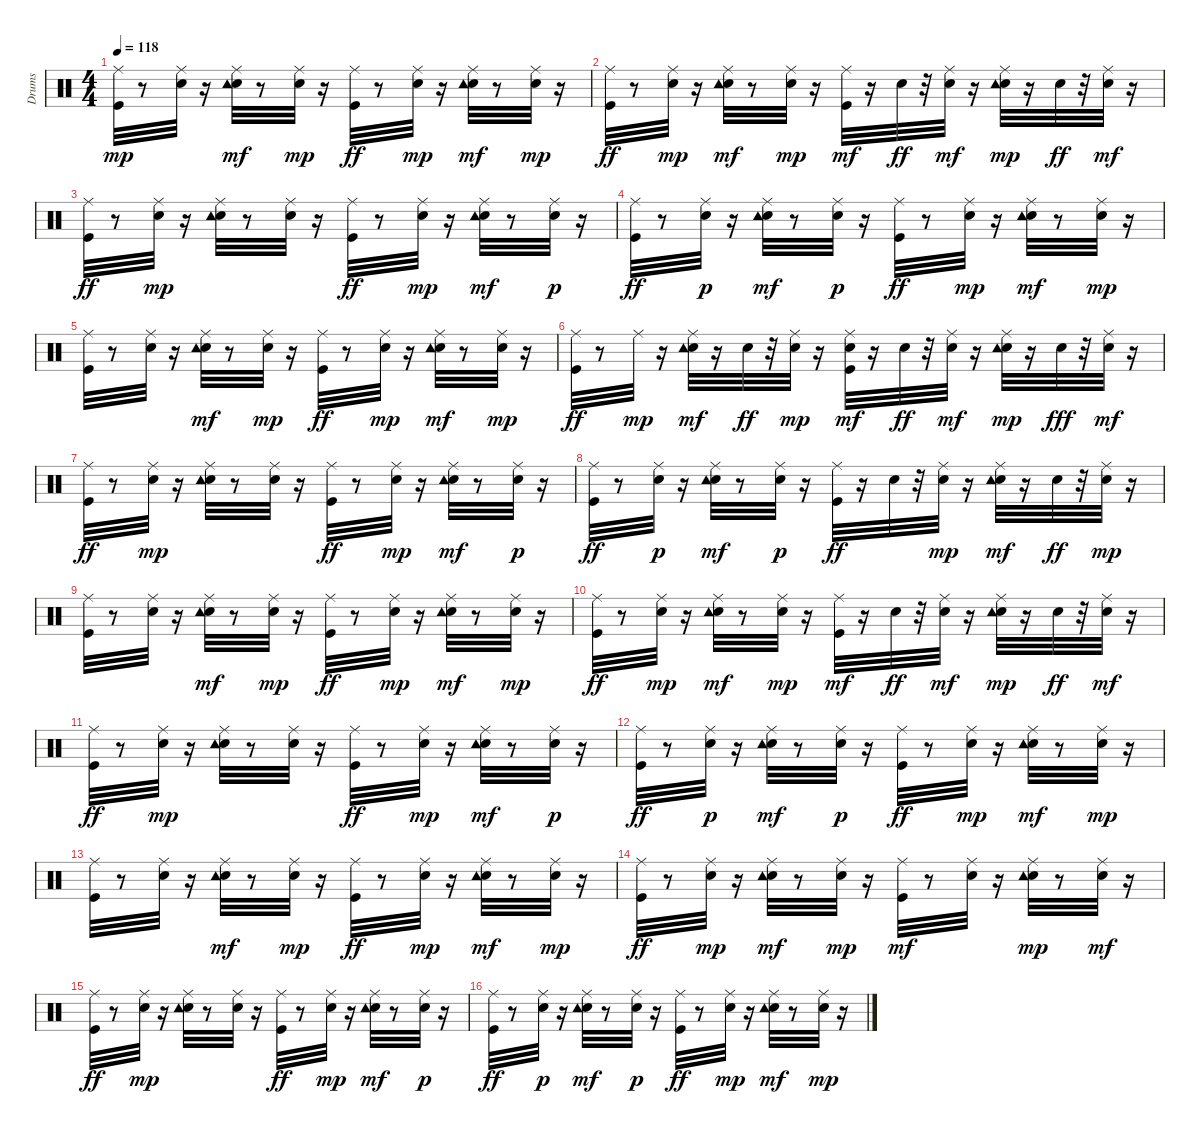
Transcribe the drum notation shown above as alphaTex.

\track ("Drums" "Drums") {instrument percussion}
\staff {score}
\articulation defaults
\ts (4 4)
\tempo 118
\clef neutral
\ks c
("Kick (hit)" "Ride (middle)").32{dy mp} r.8 ("Electric Snare (hit)" "Ride (middle)").32 r.16 ("Electric Snare (hit)" "Ride (middle)" "Tambourine (hit)").32{dy mf} r.8 ("Electric Snare (hit)" "Ride (middle)").32{dy mp} r.16 ("Ride (middle)" "Kick (hit)").32{dy ff} r.8 ("Electric Snare (hit)" "Ride (middle)").32{dy mp} r.16 ("Electric Snare (hit)" "Ride (middle)" "Tambourine (hit)").32{dy mf} r.8 ("Electric Snare (hit)" "Ride (middle)").32{dy mp} r.16 |
("Ride (middle)" "Kick (hit)").32{dy ff} r.8 ("Electric Snare (hit)" "Ride (middle)").32{dy mp} r.16 ("Electric Snare (hit)" "Ride (middle)" "Tambourine (hit)").32{dy mf} r.8 ("Electric Snare (hit)" "Ride (middle)").32{dy mp} r.16 ("Kick (hit)" "Ride (middle)").32{dy mf} r.16 "Electric Snare (hit)".32{dy ff} r.32 ("Electric Snare (hit)" "Ride (middle)").32{dy mf} r.16 ("Electric Snare (hit)" "Ride (middle)" "Tambourine (hit)").32{dy mp} r.16 "Electric Snare (hit)".32{dy ff} r.32 ("Electric Snare (hit)" "Ride (middle)").32{dy mf} r.16 |
("Ride (middle)" "Kick (hit)").32{dy ff} r.8 ("Electric Snare (hit)" "Ride (middle)").32{dy mp} r.16 ("Electric Snare (hit)" "Tambourine (hit)" "Ride (middle)").32 r.8 ("Electric Snare (hit)" "Ride (middle)").32 r.16 ("Ride (middle)" "Kick (hit)").32{dy ff} r.8 ("Electric Snare (hit)" "Ride (middle)").32{dy mp} r.16 ("Electric Snare (hit)" "Ride (middle)" "Tambourine (hit)").32{dy mf} r.8 ("Ride (middle)" "Electric Snare (hit)").32{dy p} r.16 |
("Ride (middle)" "Kick (hit)").32{dy ff} r.8 ("Electric Snare (hit)" "Ride (middle)").32{dy p} r.16 ("Electric Snare (hit)" "Ride (middle)" "Tambourine (hit)").32{dy mf} r.8 ("Ride (middle)" "Electric Snare (hit)").32{dy p} r.16 ("Ride (middle)" "Kick (hit)").32{dy ff} r.8 ("Electric Snare (hit)" "Ride (middle)").32{dy mp} r.16 ("Electric Snare (hit)" "Ride (middle)" "Tambourine (hit)").32{dy mf} r.8 ("Electric Snare (hit)" "Ride (middle)").32{dy mp} r.16 |
("Kick (hit)" "Ride (middle)").32 r.8 ("Electric Snare (hit)" "Ride (middle)").32 r.16 ("Electric Snare (hit)" "Ride (middle)" "Tambourine (hit)").32{dy mf} r.8 ("Electric Snare (hit)" "Ride (middle)").32{dy mp} r.16 ("Ride (middle)" "Kick (hit)").32{dy ff} r.8 ("Electric Snare (hit)" "Ride (middle)").32{dy mp} r.16 ("Electric Snare (hit)" "Ride (middle)" "Tambourine (hit)").32{dy mf} r.8 ("Electric Snare (hit)" "Ride (middle)").32{dy mp} r.16 |
("Ride (middle)" "Kick (hit)").32{dy ff} r.8 "Ride (middle)".32{dy mp} r.16 ("Electric Snare (hit)" "Ride (middle)" "Tambourine (hit)").32{dy mf} r.16 "Electric Snare (hit)".32{dy ff} r.32 ("Electric Snare (hit)" "Ride (middle)").32{dy mp} r.16 ("Electric Snare (hit)" "Kick (hit)" "Ride (middle)").32{dy mf} r.16 "Electric Snare (hit)".32{dy ff} r.32 ("Electric Snare (hit)" "Ride (middle)").32{dy mf} r.16 ("Electric Snare (hit)" "Ride (middle)" "Tambourine (hit)").32{dy mp} r.16 "Electric Snare (hit)".32{dy fff} r.32 ("Electric Snare (hit)" "Ride (middle)").32{dy mf} r.16 |
("Ride (middle)" "Kick (hit)").32{dy ff} r.8 ("Electric Snare (hit)" "Ride (middle)").32{dy mp} r.16 ("Electric Snare (hit)" "Tambourine (hit)" "Ride (middle)").32 r.8 ("Electric Snare (hit)" "Ride (middle)").32 r.16 ("Ride (middle)" "Kick (hit)").32{dy ff} r.8 ("Electric Snare (hit)" "Ride (middle)").32{dy mp} r.16 ("Electric Snare (hit)" "Ride (middle)" "Tambourine (hit)").32{dy mf} r.8 ("Ride (middle)" "Electric Snare (hit)").32{dy p} r.16 |
("Ride (middle)" "Kick (hit)").32{dy ff} r.8 ("Electric Snare (hit)" "Ride (middle)").32{dy p} r.16 ("Electric Snare (hit)" "Ride (middle)" "Tambourine (hit)").32{dy mf} r.8 ("Ride (middle)" "Electric Snare (hit)").32{dy p} r.16 ("Ride (middle)" "Kick (hit)").32{dy ff} r.16 "Electric Snare (hit)".32 r.32 ("Electric Snare (hit)" "Ride (middle)").32{dy mp} r.16 ("Electric Snare (hit)" "Ride (middle)" "Tambourine (hit)").32{dy mf} r.16 "Electric Snare (hit)".32{dy ff} r.32 ("Electric Snare (hit)" "Ride (middle)").32{dy mp} r.16 |
("Kick (hit)" "Ride (middle)").32 r.8 ("Electric Snare (hit)" "Ride (middle)").32 r.16 ("Electric Snare (hit)" "Ride (middle)" "Tambourine (hit)").32{dy mf} r.8 ("Electric Snare (hit)" "Ride (middle)").32{dy mp} r.16 ("Ride (middle)" "Kick (hit)").32{dy ff} r.8 ("Electric Snare (hit)" "Ride (middle)").32{dy mp} r.16 ("Electric Snare (hit)" "Ride (middle)" "Tambourine (hit)").32{dy mf} r.8 ("Electric Snare (hit)" "Ride (middle)").32{dy mp} r.16 |
("Ride (middle)" "Kick (hit)").32{dy ff} r.8 ("Electric Snare (hit)" "Ride (middle)").32{dy mp} r.16 ("Electric Snare (hit)" "Ride (middle)" "Tambourine (hit)").32{dy mf} r.8 ("Electric Snare (hit)" "Ride (middle)").32{dy mp} r.16 ("Kick (hit)" "Ride (middle)").32{dy mf} r.16 "Electric Snare (hit)".32{dy ff} r.32 ("Electric Snare (hit)" "Ride (middle)").32{dy mf} r.16 ("Electric Snare (hit)" "Ride (middle)" "Tambourine (hit)").32{dy mp} r.16 "Electric Snare (hit)".32{dy ff} r.32 ("Electric Snare (hit)" "Ride (middle)").32{dy mf} r.16 |
("Ride (middle)" "Kick (hit)").32{dy ff} r.8 ("Electric Snare (hit)" "Ride (middle)").32{dy mp} r.16 ("Electric Snare (hit)" "Tambourine (hit)" "Ride (middle)").32 r.8 ("Electric Snare (hit)" "Ride (middle)").32 r.16 ("Ride (middle)" "Kick (hit)").32{dy ff} r.8 ("Electric Snare (hit)" "Ride (middle)").32{dy mp} r.16 ("Electric Snare (hit)" "Ride (middle)" "Tambourine (hit)").32{dy mf} r.8 ("Ride (middle)" "Electric Snare (hit)").32{dy p} r.16 |
("Ride (middle)" "Kick (hit)").32{dy ff} r.8 ("Electric Snare (hit)" "Ride (middle)").32{dy p} r.16 ("Electric Snare (hit)" "Ride (middle)" "Tambourine (hit)").32{dy mf} r.8 ("Ride (middle)" "Electric Snare (hit)").32{dy p} r.16 ("Ride (middle)" "Kick (hit)").32{dy ff} r.8 ("Electric Snare (hit)" "Ride (middle)").32{dy mp} r.16 ("Electric Snare (hit)" "Ride (middle)" "Tambourine (hit)").32{dy mf} r.8 ("Electric Snare (hit)" "Ride (middle)").32{dy mp} r.16 |
("Kick (hit)" "Ride (middle)").32 r.8 ("Electric Snare (hit)" "Ride (middle)").32 r.16 ("Electric Snare (hit)" "Ride (middle)" "Tambourine (hit)").32{dy mf} r.8 ("Electric Snare (hit)" "Ride (middle)").32{dy mp} r.16 ("Ride (middle)" "Kick (hit)").32{dy ff} r.8 ("Electric Snare (hit)" "Ride (middle)").32{dy mp} r.16 ("Electric Snare (hit)" "Ride (middle)" "Tambourine (hit)").32{dy mf} r.8 ("Electric Snare (hit)" "Ride (middle)").32{dy mp} r.16 |
("Ride (middle)" "Kick (hit)").32{dy ff} r.8 ("Electric Snare (hit)" "Ride (middle)").32{dy mp} r.16 ("Electric Snare (hit)" "Ride (middle)" "Tambourine (hit)").32{dy mf} r.8 ("Electric Snare (hit)" "Ride (middle)").32{dy mp} r.16 ("Kick (hit)" "Ride (middle)").32{dy mf} r.8 ("Electric Snare (hit)" "Ride (middle)").32 r.16 ("Electric Snare (hit)" "Ride (middle)" "Tambourine (hit)").32{dy mp} r.8 ("Electric Snare (hit)" "Ride (middle)").32{dy mf} r.16 |
("Ride (middle)" "Kick (hit)").32{dy ff} r.8 ("Electric Snare (hit)" "Ride (middle)").32{dy mp} r.16 ("Electric Snare (hit)" "Tambourine (hit)" "Ride (middle)").32 r.8 ("Electric Snare (hit)" "Ride (middle)").32 r.16 ("Ride (middle)" "Kick (hit)").32{dy ff} r.8 ("Electric Snare (hit)" "Ride (middle)").32{dy mp} r.16 ("Electric Snare (hit)" "Ride (middle)" "Tambourine (hit)").32{dy mf} r.8 ("Ride (middle)" "Electric Snare (hit)").32{dy p} r.16 |
("Ride (middle)" "Kick (hit)").32{dy ff} r.8 ("Electric Snare (hit)" "Ride (middle)").32{dy p} r.16 ("Electric Snare (hit)" "Ride (middle)" "Tambourine (hit)").32{dy mf} r.8 ("Ride (middle)" "Electric Snare (hit)").32{dy p} r.16 ("Ride (middle)" "Kick (hit)").32{dy ff} r.8 ("Electric Snare (hit)" "Ride (middle)").32{dy mp} r.16 ("Electric Snare (hit)" "Ride (middle)" "Tambourine (hit)").32{dy mf} r.8 ("Electric Snare (hit)" "Ride (middle)").32{dy mp} r.16
